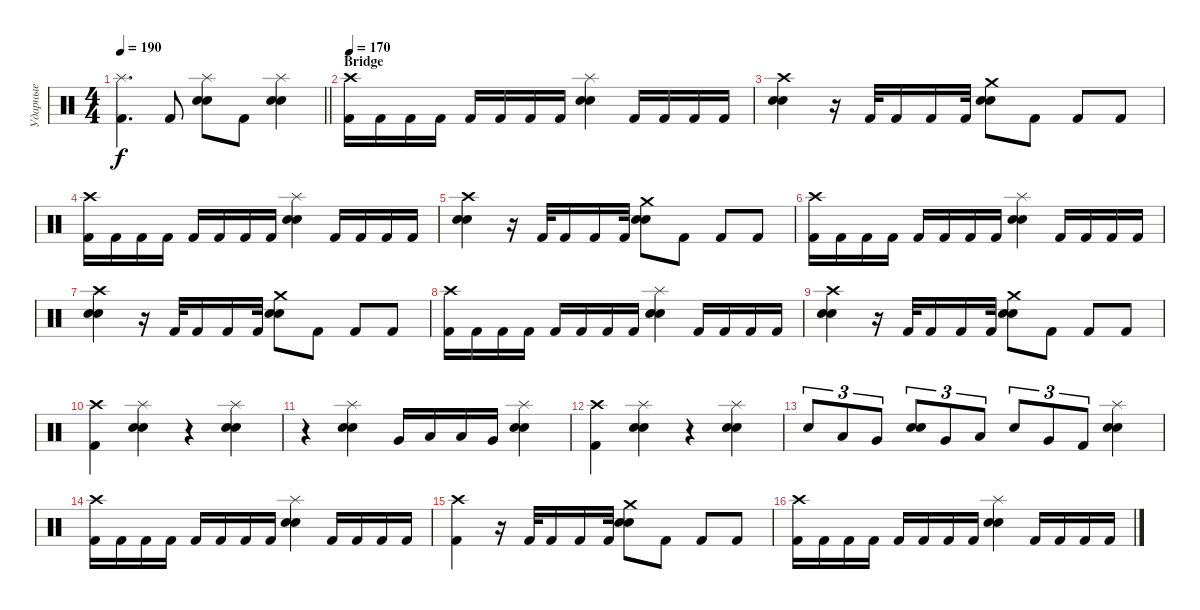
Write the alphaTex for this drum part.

\track ("Ударные" "Ударные") {instrument percussion}
\staff {score}
\articulation defaults
\ts (4 4)
\tempo 190
\clef neutral
\barLineRight lightlight
\ks c
("Splash (hit)" "Kick (hit) 2").4{d dy f} "Kick (hit) 2".8 ("Splash (hit)" "Electric Snare (hit)" "Snare (hit) 2").8 "Kick (hit) 2".8 ("Splash (hit)" "Electric Snare (hit)" "Snare (hit) 2").4 |
\section ("" "Bridge")
\tempo 170
("Crash high (hit)" "Kick (hit) 2").16 "Kick (hit) 2".16 "Kick (hit) 2".16 "Kick (hit) 2".16 "Kick (hit) 2".16 "Kick (hit) 2".16 "Kick (hit) 2".16 "Kick (hit) 2".16 ("Splash (hit)" "Electric Snare (hit)" "Snare (hit) 2").4 "Kick (hit) 2".16 "Kick (hit) 2".16 "Kick (hit) 2".16 "Kick (hit) 2".16 |
("Crash high (hit)" "Electric Snare (hit)" "Snare (hit) 2").4 r.16 "Kick (hit) 2".32 "Kick (hit) 2".16 "Kick (hit) 2".16 "Kick (hit) 2".32 ("Crash medium (hit)" "Electric Snare (hit)" "Snare (hit) 2").8 "Kick (hit) 2".8 "Kick (hit) 2".8 "Kick (hit) 2".8 |
("Crash high (hit)" "Kick (hit) 2").16 "Kick (hit) 2".16 "Kick (hit) 2".16 "Kick (hit) 2".16 "Kick (hit) 2".16 "Kick (hit) 2".16 "Kick (hit) 2".16 "Kick (hit) 2".16 ("Splash (hit)" "Electric Snare (hit)" "Snare (hit) 2").4 "Kick (hit) 2".16 "Kick (hit) 2".16 "Kick (hit) 2".16 "Kick (hit) 2".16 |
("Crash high (hit)" "Electric Snare (hit)" "Snare (hit) 2").4 r.16 "Kick (hit) 2".32 "Kick (hit) 2".16 "Kick (hit) 2".16 "Kick (hit) 2".32 ("Crash medium (hit)" "Electric Snare (hit)" "Snare (hit) 2").8 "Kick (hit) 2".8 "Kick (hit) 2".8 "Kick (hit) 2".8 |
("Crash high (hit)" "Kick (hit) 2").16 "Kick (hit) 2".16 "Kick (hit) 2".16 "Kick (hit) 2".16 "Kick (hit) 2".16 "Kick (hit) 2".16 "Kick (hit) 2".16 "Kick (hit) 2".16 ("Splash (hit)" "Electric Snare (hit)" "Snare (hit) 2").4 "Kick (hit) 2".16 "Kick (hit) 2".16 "Kick (hit) 2".16 "Kick (hit) 2".16 |
("Crash high (hit)" "Electric Snare (hit)" "Snare (hit) 2").4 r.16 "Kick (hit) 2".32 "Kick (hit) 2".16 "Kick (hit) 2".16 "Kick (hit) 2".32 ("Crash medium (hit)" "Electric Snare (hit)" "Snare (hit) 2").8 "Kick (hit) 2".8 "Kick (hit) 2".8 "Kick (hit) 2".8 |
("Crash high (hit)" "Kick (hit) 2").16 "Kick (hit) 2".16 "Kick (hit) 2".16 "Kick (hit) 2".16 "Kick (hit) 2".16 "Kick (hit) 2".16 "Kick (hit) 2".16 "Kick (hit) 2".16 ("Splash (hit)" "Electric Snare (hit)" "Snare (hit) 2").4 "Kick (hit) 2".16 "Kick (hit) 2".16 "Kick (hit) 2".16 "Kick (hit) 2".16 |
("Crash high (hit)" "Electric Snare (hit)" "Snare (hit) 2").4 r.16 "Kick (hit) 2".32 "Kick (hit) 2".16 "Kick (hit) 2".16 "Kick (hit) 2".32 ("Crash medium (hit)" "Electric Snare (hit)" "Snare (hit) 2").8 "Kick (hit) 2".8 "Kick (hit) 2".8 "Kick (hit) 2".8 |
("Crash high (hit)" "Kick (hit) 2").4 ("Splash (hit)" "Electric Snare (hit)" "Snare (hit) 2").4 r.4 ("Splash (hit)" "Electric Snare (hit)" "Snare (hit) 2").4 |
r.4 ("Splash (hit)" "Electric Snare (hit)" "Snare (hit) 2").4 "Very Low Tom (hit)".16 "Low Tom (hit)".16 "Low Tom (hit)".16 "Very Low Tom (hit)".16 ("Splash (hit)" "Electric Snare (hit)" "Snare (hit) 2").4 |
("Crash high (hit)" "Kick (hit) 2").4 ("Splash (hit)" "Electric Snare (hit)" "Snare (hit) 2").4 r.4 ("Splash (hit)" "Electric Snare (hit)" "Snare (hit) 2").4 |
"Electric Snare (hit)".8{tu (3 2)} "Low Tom (hit)".8{tu (3 2)} "Very Low Tom (hit)".8{tu (3 2)} ("Electric Snare (hit)" "Snare (hit) 2").8{tu (3 2)} "Very Low Tom (hit)".8{tu (3 2)} "Low Floor Tom (hit)".8{tu (3 2)} "Electric Snare (hit)".8{tu (3 2)} "Very Low Tom (hit)".8{tu (3 2)} "Kick (hit) 2".8{tu (3 2)} ("Splash (hit)" "Electric Snare (hit)" "Snare (hit) 2").4 |
("Crash high (hit)" "Kick (hit) 2").16 "Kick (hit) 2".16 "Kick (hit) 2".16 "Kick (hit) 2".16 "Kick (hit) 2".16 "Kick (hit) 2".16 "Kick (hit) 2".16 "Kick (hit) 2".16 ("Splash (hit)" "Electric Snare (hit)" "Snare (hit) 2").4 "Kick (hit) 2".16 "Kick (hit) 2".16 "Kick (hit) 2".16 "Kick (hit) 2".16 |
("Crash high (hit)" "Kick (hit) 2").4 r.16 "Kick (hit) 2".32 "Kick (hit) 2".16 "Kick (hit) 2".16 "Kick (hit) 2".32 ("Crash medium (hit)" "Electric Snare (hit)" "Snare (hit) 2").8 "Kick (hit) 2".8 "Kick (hit) 2".8 "Kick (hit) 2".8 |
("Crash high (hit)" "Kick (hit) 2").16 "Kick (hit) 2".16 "Kick (hit) 2".16 "Kick (hit) 2".16 "Kick (hit) 2".16 "Kick (hit) 2".16 "Kick (hit) 2".16 "Kick (hit) 2".16 ("Splash (hit)" "Electric Snare (hit)" "Snare (hit) 2").4 "Kick (hit) 2".16 "Kick (hit) 2".16 "Kick (hit) 2".16 "Kick (hit) 2".16
